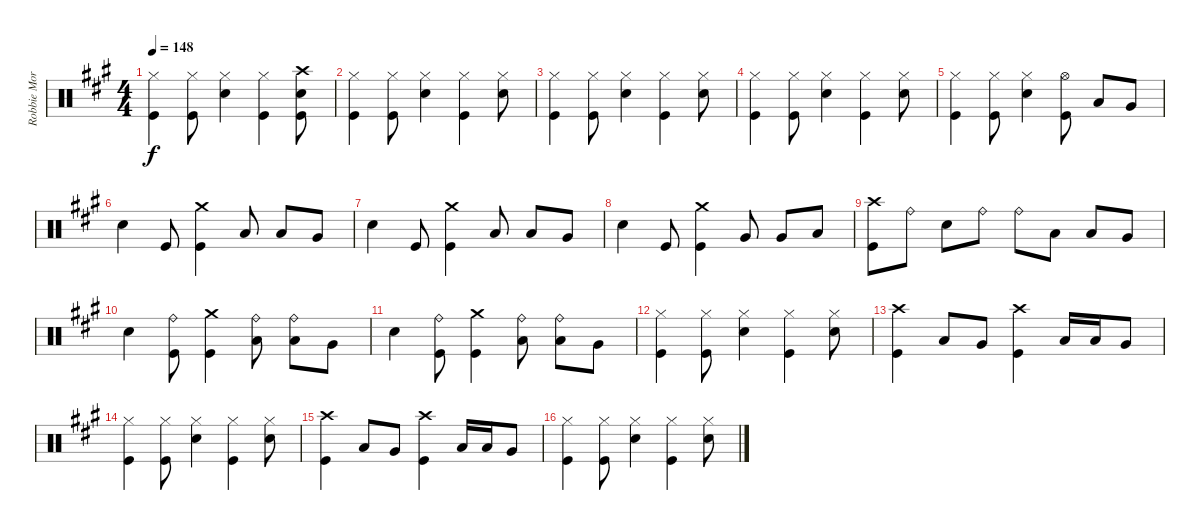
\track ("Robbie Morris Drums" "Robbie Mor") {instrument percussion}
\staff {score}
\articulation defaults
\ts (4 4)
\tempo 148
\clef neutral
\ks a
("Hi-Hat (closed)" "Kick (hit)").4{dy f} ("Hi-Hat (closed)" "Kick (hit)").8 ("Hi-Hat (closed)" "Snare (hit) 2").4 ("Hi-Hat (closed)" "Kick (hit)").4 ("Crash high (hit)" "Snare (hit) 2" "Kick (hit)").8 |
("Hi-Hat (closed)" "Kick (hit)").4 ("Hi-Hat (closed)" "Kick (hit)").8 ("Hi-Hat (closed)" "Snare (hit) 2").4 ("Hi-Hat (closed)" "Kick (hit)").4 ("Hi-Hat (closed)" "Snare (hit) 2").8 |
("Hi-Hat (closed)" "Kick (hit)").4 ("Hi-Hat (closed)" "Kick (hit)").8 ("Hi-Hat (closed)" "Snare (hit) 2").4 ("Hi-Hat (closed)" "Kick (hit)").4 ("Hi-Hat (closed)" "Snare (hit) 2").8 |
("Hi-Hat (closed)" "Kick (hit)").4 ("Hi-Hat (closed)" "Kick (hit)").8 ("Hi-Hat (closed)" "Snare (hit) 2").4 ("Hi-Hat (closed)" "Kick (hit)").4 ("Hi-Hat (closed)" "Snare (hit) 2").8 |
("Hi-Hat (closed)" "Kick (hit)").4 ("Hi-Hat (closed)" "Kick (hit)").8 ("Hi-Hat (closed)" "Snare (hit) 2").4 ("Hi-Hat (open)" "Kick (hit)").8 "Low Tom (hit)".8 "Very Low Tom (hit)".8 |
"Snare (hit) 2".4 "Kick (hit)".8 ("Crash medium (hit)" "Kick (hit)").4 "Low Tom (hit)".8 "Low Tom (hit)".8 "Very Low Tom (hit)".8 |
"Snare (hit) 2".4 "Kick (hit)".8 ("Crash medium (hit)" "Kick (hit)").4 "Low Tom (hit)".8 "Low Tom (hit)".8 "Very Low Tom (hit)".8 |
"Snare (hit) 2".4 "Kick (hit)".8 ("Crash medium (hit)" "Kick (hit)").4 "Very Low Tom (hit)".8 "Very Low Tom (hit)".8 "Low Floor Tom (hit)".8 |
("Crash high (hit)" "Kick (hit)").8 "Ride (bell)".8 "Snare (hit) 2".8 "Ride (bell)".8 "Ride (bell)".8 "Low Tom (hit)".8 "Low Tom (hit)".8 "Very Low Tom (hit)".8 |
"Snare (hit) 2".4 ("Ride (bell)" "Kick (hit)").8 ("Crash medium (hit)" "Kick (hit)").4 ("Ride (bell)" "Low Tom (hit)").8 ("Ride (bell)" "Low Tom (hit)").8 "Very Low Tom (hit)".8 |
"Snare (hit) 2".4 ("Ride (bell)" "Kick (hit)").8 ("Crash medium (hit)" "Kick (hit)").4 ("Ride (bell)" "Low Tom (hit)").8 ("Ride (bell)" "Low Tom (hit)").8 "Very Low Tom (hit)".8 |
("Hi-Hat (closed)" "Kick (hit)").4 ("Hi-Hat (closed)" "Kick (hit)").8 ("Hi-Hat (closed)" "Snare (hit) 2").4 ("Hi-Hat (closed)" "Kick (hit)").4 ("Hi-Hat (closed)" "Snare (hit) 2").8 |
("Crash high (hit)" "Kick (hit)").4 "Low Tom (hit)".8 "Very Low Tom (hit)".8 ("Crash high (hit)" "Kick (hit)").4 "Low Tom (hit)".16 "Low Tom (hit)".16 "Very Low Tom (hit)".8 |
("Hi-Hat (closed)" "Kick (hit)").4 ("Hi-Hat (closed)" "Kick (hit)").8 ("Hi-Hat (closed)" "Snare (hit) 2").4 ("Hi-Hat (closed)" "Kick (hit)").4 ("Hi-Hat (closed)" "Snare (hit) 2").8 |
("Crash high (hit)" "Kick (hit)").4 "Low Tom (hit)".8 "Very Low Tom (hit)".8 ("Crash high (hit)" "Kick (hit)").4 "Low Tom (hit)".16 "Low Tom (hit)".16 "Very Low Tom (hit)".8 |
("Hi-Hat (closed)" "Kick (hit)").4 ("Hi-Hat (closed)" "Kick (hit)").8 ("Hi-Hat (closed)" "Snare (hit) 2").4 ("Hi-Hat (closed)" "Kick (hit)").4 ("Hi-Hat (closed)" "Snare (hit) 2").8
